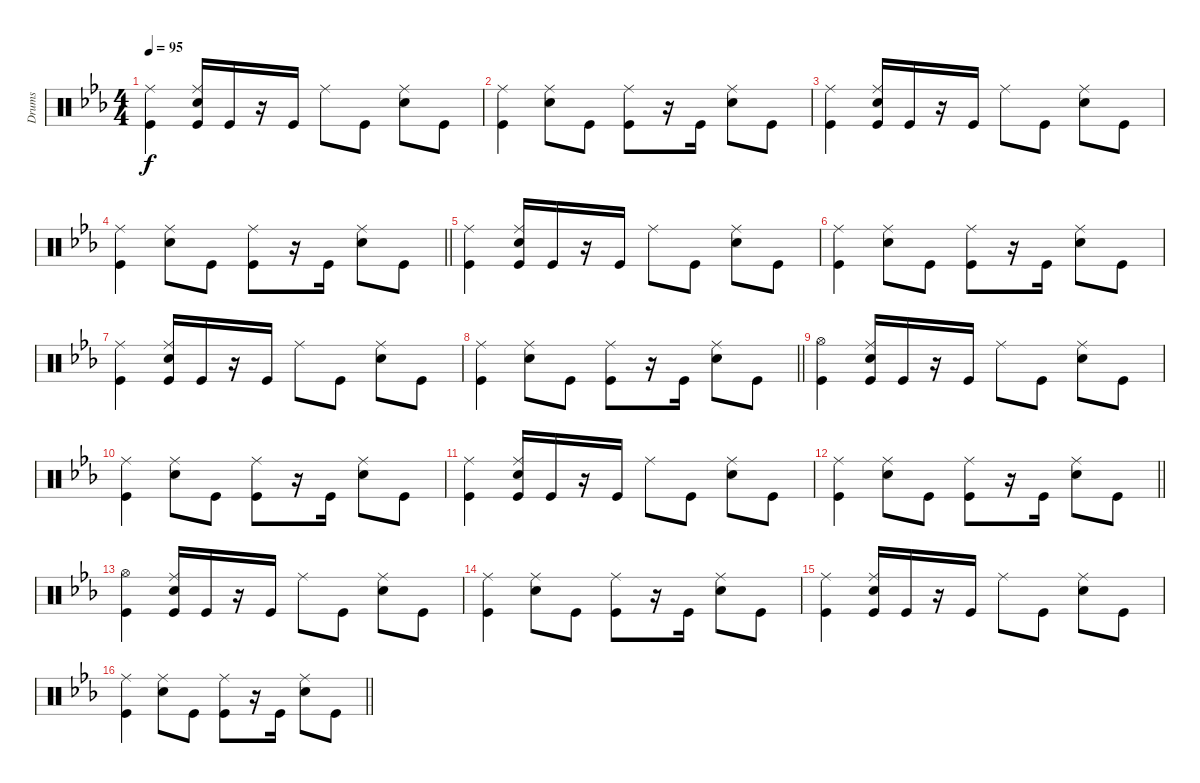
\track ("Drums" "Drums") {instrument percussion}
\staff {score}
\articulation defaults
\ts (4 4)
\tempo 95
\clef neutral
\ks eb
("Kick (hit)" "Ride (middle)").4{dy f} ("Kick (hit)" "Ride (middle)" "Snare (hit) 2").16 "Kick (hit)".16 r.16 "Kick (hit)".16 "Ride (middle)".8 "Kick (hit)".8 ("Ride (middle)" "Snare (hit) 2").8 "Kick (hit)".8 |
("Kick (hit)" "Ride (middle)").4 ("Ride (middle)" "Snare (hit) 2").8 "Kick (hit)".8 ("Kick (hit)" "Ride (middle)").8 r.16 "Kick (hit)".16 ("Ride (middle)" "Snare (hit) 2").8 "Kick (hit)".8 |
("Kick (hit)" "Ride (middle)").4 ("Kick (hit)" "Ride (middle)" "Snare (hit) 2").16 "Kick (hit)".16 r.16 "Kick (hit)".16 "Ride (middle)".8 "Kick (hit)".8 ("Ride (middle)" "Snare (hit) 2").8 "Kick (hit)".8 |
\barLineRight lightlight
("Kick (hit)" "Ride (middle)").4 ("Ride (middle)" "Snare (hit) 2").8 "Kick (hit)".8 ("Kick (hit)" "Ride (middle)").8 r.16 "Kick (hit)".16 ("Ride (middle)" "Snare (hit) 2").8 "Kick (hit)".8 |
("Kick (hit)" "Ride (middle)").4 ("Kick (hit)" "Ride (middle)" "Snare (hit) 2").16 "Kick (hit)".16 r.16 "Kick (hit)".16 "Ride (middle)".8 "Kick (hit)".8 ("Ride (middle)" "Snare (hit) 2").8 "Kick (hit)".8 |
("Kick (hit)" "Ride (middle)").4 ("Ride (middle)" "Snare (hit) 2").8 "Kick (hit)".8 ("Kick (hit)" "Ride (middle)").8 r.16 "Kick (hit)".16 ("Ride (middle)" "Snare (hit) 2").8 "Kick (hit)".8 |
("Kick (hit)" "Ride (middle)").4 ("Kick (hit)" "Ride (middle)" "Snare (hit) 2").16 "Kick (hit)".16 r.16 "Kick (hit)".16 "Ride (middle)".8 "Kick (hit)".8 ("Ride (middle)" "Snare (hit) 2").8 "Kick (hit)".8 |
\barLineRight lightlight
("Kick (hit)" "Ride (middle)").4 ("Ride (middle)" "Snare (hit) 2").8 "Kick (hit)".8 ("Kick (hit)" "Ride (middle)").8 r.16 "Kick (hit)".16 ("Ride (middle)" "Snare (hit) 2").8 "Kick (hit)".8 |
("Kick (hit)" "Hi-Hat (open)").4 ("Kick (hit)" "Ride (middle)" "Snare (hit) 2").16 "Kick (hit)".16 r.16 "Kick (hit)".16 "Ride (middle)".8 "Kick (hit)".8 ("Ride (middle)" "Snare (hit) 2").8 "Kick (hit)".8 |
("Kick (hit)" "Ride (middle)").4 ("Ride (middle)" "Snare (hit) 2").8 "Kick (hit)".8 ("Kick (hit)" "Ride (middle)").8 r.16 "Kick (hit)".16 ("Ride (middle)" "Snare (hit) 2").8 "Kick (hit)".8 |
("Kick (hit)" "Ride (middle)").4 ("Kick (hit)" "Ride (middle)" "Snare (hit) 2").16 "Kick (hit)".16 r.16 "Kick (hit)".16 "Ride (middle)".8 "Kick (hit)".8 ("Ride (middle)" "Snare (hit) 2").8 "Kick (hit)".8 |
\barLineRight lightlight
("Kick (hit)" "Ride (middle)").4 ("Ride (middle)" "Snare (hit) 2").8 "Kick (hit)".8 ("Kick (hit)" "Ride (middle)").8 r.16 "Kick (hit)".16 ("Ride (middle)" "Snare (hit) 2").8 "Kick (hit)".8 |
("Kick (hit)" "Hi-Hat (open)").4 ("Kick (hit)" "Ride (middle)" "Snare (hit) 2").16 "Kick (hit)".16 r.16 "Kick (hit)".16 "Ride (middle)".8 "Kick (hit)".8 ("Ride (middle)" "Snare (hit) 2").8 "Kick (hit)".8 |
("Kick (hit)" "Ride (middle)").4 ("Ride (middle)" "Snare (hit) 2").8 "Kick (hit)".8 ("Kick (hit)" "Ride (middle)").8 r.16 "Kick (hit)".16 ("Ride (middle)" "Snare (hit) 2").8 "Kick (hit)".8 |
("Kick (hit)" "Ride (middle)").4 ("Kick (hit)" "Ride (middle)" "Snare (hit) 2").16 "Kick (hit)".16 r.16 "Kick (hit)".16 "Ride (middle)".8 "Kick (hit)".8 ("Ride (middle)" "Snare (hit) 2").8 "Kick (hit)".8 |
\barLineRight lightlight
("Kick (hit)" "Ride (middle)").4 ("Ride (middle)" "Snare (hit) 2").8 "Kick (hit)".8 ("Kick (hit)" "Ride (middle)").8 r.16 "Kick (hit)".16 ("Ride (middle)" "Snare (hit) 2").8 "Kick (hit)".8
